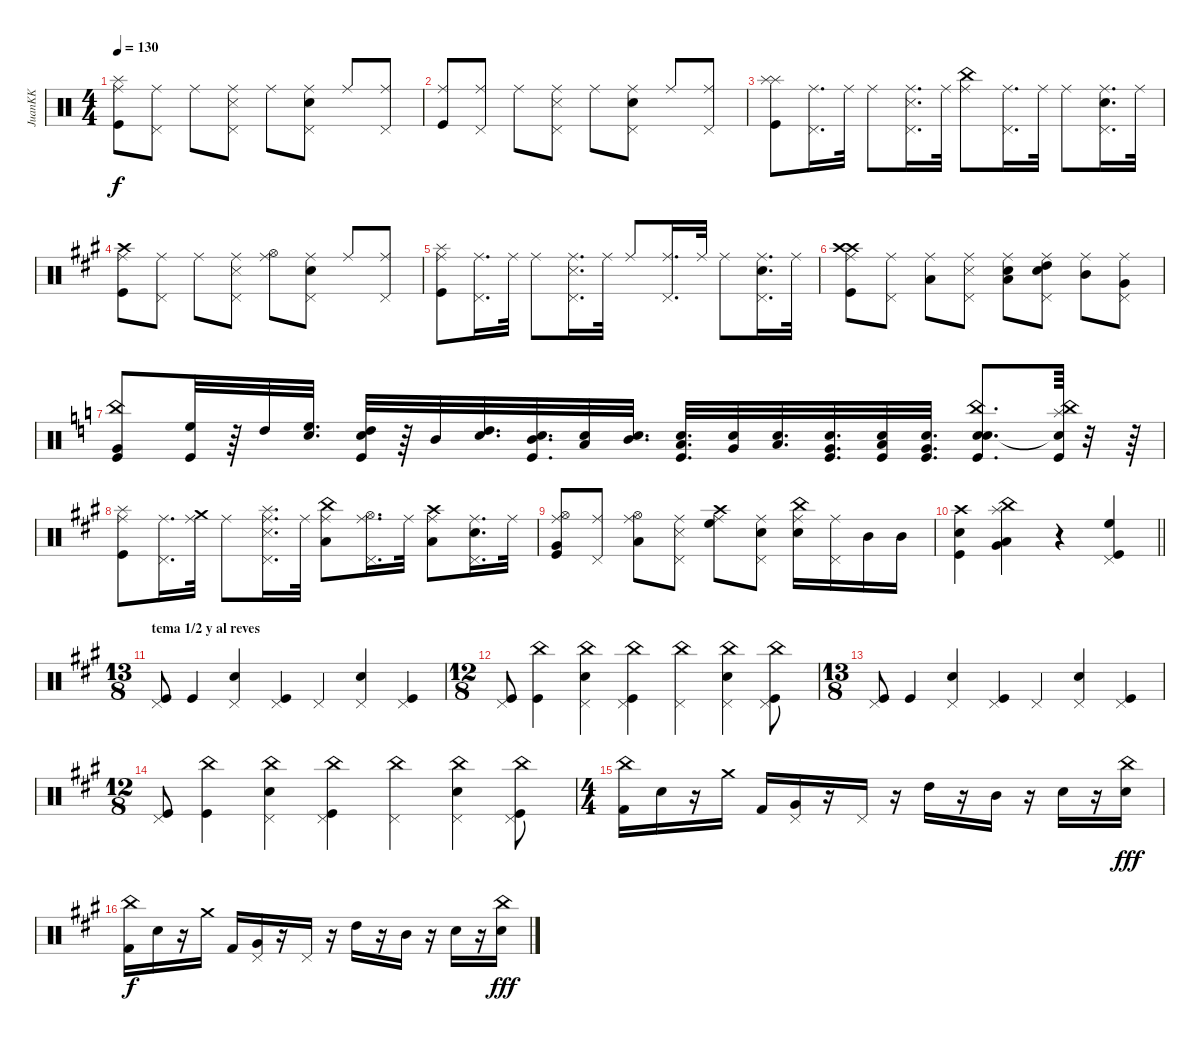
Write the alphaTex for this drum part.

\track ("JuanKK" "JuanKK") {instrument percussion}
\staff {score}
\articulation defaults
\ts (4 4)
\tempo 130
\clef neutral
\ks c
("Kick (hit)" "Ride (middle)" "Splash (hit)").8{dy f} ("Pedal Hi-Hat (hit)" "Ride (middle)").8 "Ride (middle)".8 ("Metronome (hit)" "Pedal Hi-Hat (hit)" "Ride (middle)").8 "Ride (middle)".8 ("Electric Snare (hit)" "Pedal Hi-Hat (hit)" "Ride (middle)").8 "Ride (middle)".8 ("Pedal Hi-Hat (hit)" "Ride (middle)").8 |
("Kick (hit)" "Ride (middle)").8 ("Pedal Hi-Hat (hit)" "Ride (middle)").8 "Ride (middle)".8 ("Metronome (hit)" "Pedal Hi-Hat (hit)" "Ride (middle)").8 "Ride (middle)".8 ("Electric Snare (hit)" "Pedal Hi-Hat (hit)" "Ride (middle)").8 "Ride (middle)".8 ("Pedal Hi-Hat (hit)" "Ride (middle)").8 |
("Kick (hit)" "Splash (hit)" "Splash (hit)").8 ("Pedal Hi-Hat (hit)" "Ride (middle)").16{d} "Ride (middle)".32 "Ride (middle)".8 ("Metronome (hit)" "Pedal Hi-Hat (hit)" "Ride (middle)").16{d} "Ride (middle)".32 ("Ride (middle)" "China (hit)").8 ("Pedal Hi-Hat (hit)" "Ride (middle)").16{d} "Ride (middle)".32 "Ride (middle)".8 ("Electric Snare (hit)" "Pedal Hi-Hat (hit)" "Ride (middle)").16{d} "Ride (middle)".32 |
\ks a
("Kick (hit)" "Ride (middle)" "Crash high (hit)").8 ("Pedal Hi-Hat (hit)" "Ride (middle)").8 "Ride (middle)".8 ("Metronome (hit)" "Pedal Hi-Hat (hit)" "Ride (middle)").8 ("Ride (middle)" "Hi-Hat (open)").8 ("Electric Snare (hit)" "Pedal Hi-Hat (hit)" "Ride (middle)").8 "Ride (middle)".8 ("Pedal Hi-Hat (hit)" "Ride (middle)").8 |
("Kick (hit)" "Ride (middle)" "Splash (hit)").8 ("Pedal Hi-Hat (hit)" "Ride (middle)").16{d} "Ride (middle)".32 "Ride (middle)".8 ("Metronome (hit)" "Pedal Hi-Hat (hit)" "Ride (middle)").16{d} "Ride (middle)".32 "Ride (middle)".8 ("Pedal Hi-Hat (hit)" "Ride (middle)").16{d} "Ride (middle)".32 "Ride (middle)".8 ("Electric Snare (hit)" "Pedal Hi-Hat (hit)" "Ride (middle)").16{d} "Ride (middle)".32 |
("Kick (hit)" "Crash high (hit)" "Ride (middle)" "Crash high (hit)").8 ("Pedal Hi-Hat (hit)" "Ride (middle)").8 ("Low Tom (hit)" "Ride (middle)").8 ("Metronome (hit)" "Pedal Hi-Hat (hit)" "Ride (middle)").8 ("Electric Snare (hit)" "Low Tom (hit)" "Ride (middle)").8 ("Electric Snare (hit)" "Pedal Hi-Hat (hit)" "High Tom (hit)" "Ride (middle)").8 ("Mid Tom (hit)" "Ride (middle)").8 ("Pedal Hi-Hat (hit)" "Very Low Tom (hit)" "Ride (middle)").8 |
\ks c
("Kick (hit)" "Very Low Tom (hit)" "China (hit)").8 ("Kick (hit)" "High Floor Tom (hit)").32 r.64 "High Tom (hit)".32 ("Snare (hit)" "High Floor Tom (hit)").32{d} ("Snare (hit)" "Kick (hit)" "High Tom (hit)").32 r.64 "Mid Tom (hit)".32 ("Snare (hit)" "High Tom (hit)").32{d} ("Snare (hit)" "Kick (hit)" "Mid Tom (hit)").32{d} ("Snare (hit)" "Low Tom (hit)").32 ("Snare (hit)" "Mid Tom (hit)").32{d} ("Snare (hit)" "Kick (hit)" "Low Tom (hit)").32{d} ("Snare (hit)" "Very Low Tom (hit)").32 ("Snare (hit)" "Low Tom (hit)").32{d} ("Snare (hit)" "Kick (hit)" "Very Low Tom (hit)").32{d} ("Snare (hit)" "Kick (hit)" "Low Floor Tom (hit)").32 ("Snare (hit)" "Kick (hit)" "Very Low Tom (hit)").32{d} ("Snare (hit)" "Kick (hit)" "Snare (hit) 2" "China (hit)").8{d} ("Snare (hit)"{t} "Kick (hit)" "China (hit)" "Splash (hit)").64 r.32 r.64 |
\ks a
("Kick (hit)" "Ride (middle)" "Splash (hit)").8 ("Pedal Hi-Hat (hit)" "Ride (middle)").16{d} ("Ride (middle)" "Crash medium (hit)").32 "Ride (middle)".8 ("Metronome (hit)" "Pedal Hi-Hat (hit)" "Ride (middle)" "Splash (hit)").16{d} "Ride (middle)".32 ("Low Tom (hit)" "Ride (middle)" "China (hit)").8 ("Pedal Hi-Hat (hit)" "Ride (middle)" "Hi-Hat (open)").16{d} "Ride (middle)".32 ("Low Tom (hit)" "Ride (middle)" "Crash high (hit)").8 ("Electric Snare (hit)" "Pedal Hi-Hat (hit)" "Ride (middle)").16{d} "Ride (middle)".32 |
("Kick (hit)" "Very Low Tom (hit)" "Ride (middle)" "Hi-Hat (open)").8 ("Pedal Hi-Hat (hit)" "Ride (middle)").8 ("Low Tom (hit)" "Ride (middle)" "Hi-Hat (open)").8 ("Metronome (hit)" "Pedal Hi-Hat (hit)" "Ride (middle)").8 ("Crash high (hit)" "Ride (middle)" "High Floor Tom (hit)").8 ("Electric Snare (hit)" "Pedal Hi-Hat (hit)" "Ride (middle)").8 ("Electric Snare (hit)" "Ride (middle)" "China (hit)").16 ("Pedal Hi-Hat (hit)" "Ride (middle)").16 "Mid Tom (hit)".16 "Mid Tom (hit)".16 |
\barLineRight lightlight
("Kick (hit)" "Electric Snare (hit)" "Crash high (hit)").4 ("Low Floor Tom (hit)" "Very Low Tom (hit)" "China (hit)" "Splash (hit)").4 r.4 ("Kick (hit)" "Pedal Hi-Hat (hit)" "High Floor Tom (hit)").4 |
\ts (13 8)
\section ("" "tema 1/2 y al reves")
("Kick (hit)" "Pedal Hi-Hat (hit)").8 "Kick (hit)".4 ("Electric Snare (hit)" "Pedal Hi-Hat (hit)").4 ("Kick (hit)" "Pedal Hi-Hat (hit)").4 "Pedal Hi-Hat (hit)".4 ("Electric Snare (hit)" "Pedal Hi-Hat (hit)").4 ("Kick (hit)" "Pedal Hi-Hat (hit)").4 |
\ts (12 8)
("Kick (hit)" "Pedal Hi-Hat (hit)").8 ("Kick (hit)" "China (hit)").4 ("Electric Snare (hit)" "Pedal Hi-Hat (hit)" "China (hit)").4 ("Kick (hit)" "Pedal Hi-Hat (hit)" "China (hit)").4 ("Pedal Hi-Hat (hit)" "China (hit)").4 ("Electric Snare (hit)" "Pedal Hi-Hat (hit)" "China (hit)").4 ("Kick (hit)" "Pedal Hi-Hat (hit)" "China (hit)").8 |
\ts (13 8)
("Kick (hit)" "Pedal Hi-Hat (hit)").8 "Kick (hit)".4 ("Electric Snare (hit)" "Pedal Hi-Hat (hit)").4 ("Kick (hit)" "Pedal Hi-Hat (hit)").4 "Pedal Hi-Hat (hit)".4 ("Electric Snare (hit)" "Pedal Hi-Hat (hit)").4 ("Kick (hit)" "Pedal Hi-Hat (hit)").4 |
\ts (12 8)
("Kick (hit)" "Pedal Hi-Hat (hit)").8 ("Kick (hit)" "China (hit)").4 ("Electric Snare (hit)" "Pedal Hi-Hat (hit)" "China (hit)").4 ("Kick (hit)" "Pedal Hi-Hat (hit)" "China (hit)").4 ("Pedal Hi-Hat (hit)" "China (hit)").4 ("Electric Snare (hit)" "Pedal Hi-Hat (hit)" "China (hit)").4 ("Kick (hit)" "Pedal Hi-Hat (hit)" "China (hit)").8 |
\ts (4 4)
("China (hit)" "Kick (hit) 2").16 "Electric Snare (hit)".16 r.16 "Crash medium (hit)".16 "Kick (hit) 2".16 ("Very Low Tom (hit)" "Pedal Hi-Hat (hit)").16 r.16 "Pedal Hi-Hat (hit)".16 r.16 "High Tom (hit)".16 r.16 "Mid Tom (hit)".16 r.16 "Electric Snare (hit)".16 r.16 ("China (hit)" "Electric Snare (hit)").16{dy fff} |
("China (hit)" "Kick (hit) 2").16{dy f} "Electric Snare (hit)".16 r.16 "Crash medium (hit)".16 "Kick (hit) 2".16 ("Very Low Tom (hit)" "Pedal Hi-Hat (hit)").16 r.16 "Pedal Hi-Hat (hit)".16 r.16 "High Tom (hit)".16 r.16 "Mid Tom (hit)".16 r.16 "Electric Snare (hit)".16 r.16 ("China (hit)" "Electric Snare (hit)").16{dy fff}
